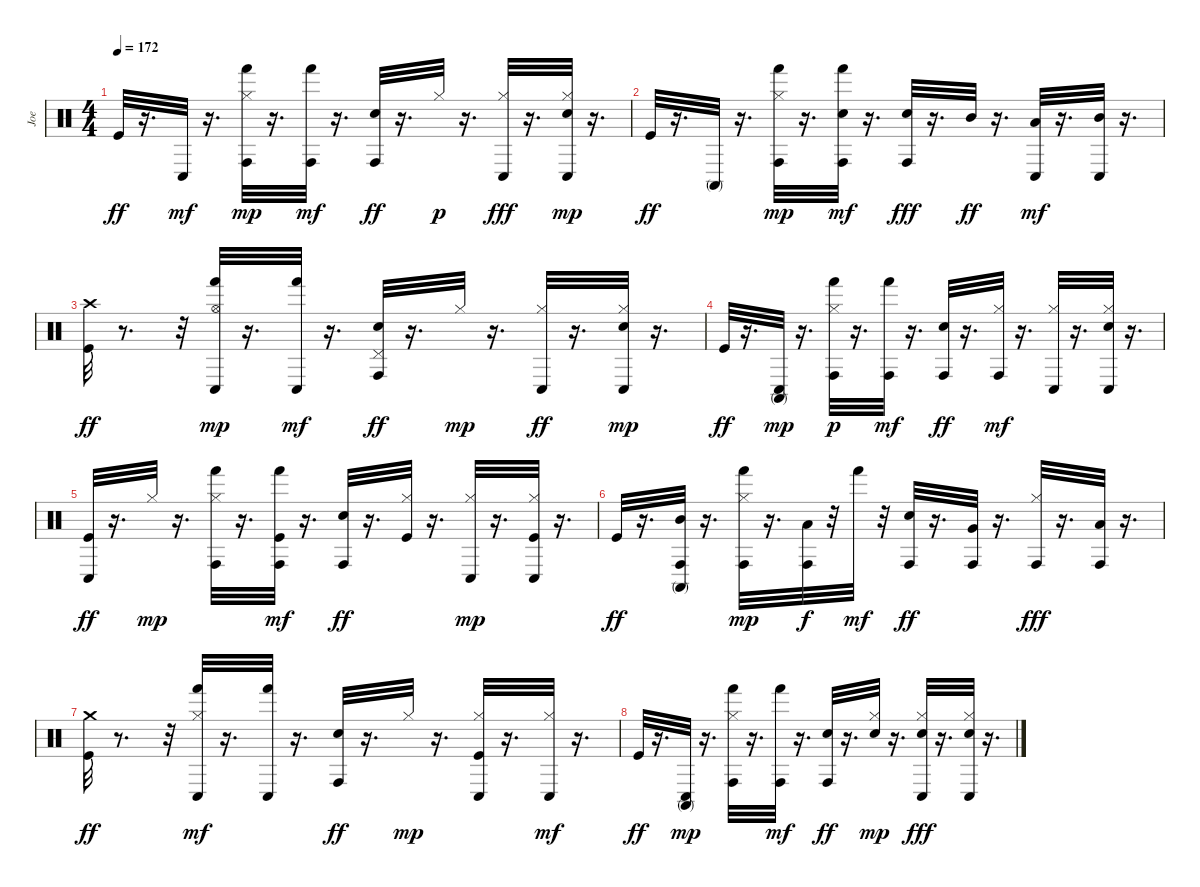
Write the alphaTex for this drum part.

\track ("Joe" "Joe") {instrument percussion}
\staff {score}
\articulation defaults
\ts (4 4)
\tempo 172
\clef neutral
\ks c "Kick (hit)".32{dy ff}
r.16{d} "Conga low (hit)".32{dy mf} r.16{d} ("Hi-Hat (closed)" "Conga high (hit)" "Hand (hit)").32{dy mp} r.16{d} ("Hand (hit)" "Conga high (hit)").32{dy mf} r.16{d} ("Snare (hit) 2" "Conga high (hit)").32{dy ff} r.16{d} "Hi-Hat (closed)".32{dy p} r.16{d} ("Conga low (hit)" "Hi-Hat (closed)").32{dy fff} r.16{d} ("Snare (hit) 2" "Hi-Hat (closed)" "Conga low (hit)").32{dy mp} r.16{d} |
"Kick (hit)".32{dy ff} r.16{d} "Conga high (mute)".32 r.16{d} ("Conga high (hit)" "Hi-Hat (closed)" "Hand (hit)").32{dy mp} r.16{d} ("Conga high (hit)" "Hand (hit)" "Snare (hit) 2").32{dy mf} r.16{d} ("Snare (hit) 2" "Conga high (hit)").32{dy fff} r.16{d} "Mid Tom (hit)".32{dy ff} r.16{d} ("Low Floor Tom (hit)" "Conga low (hit)").32{dy mf} r.16{d} ("Mid Tom (hit)" "Conga low (hit)").32 r.16{d} |
("Crash high (hit)" "Kick (hit)").32{dy ff} r.8{d} r.32 ("Conga low (hit)" "Hi-Hat (open)" "Hand (hit)").32{dy mp} r.16{d} ("Conga low (hit)" "Hand (hit)").32{dy mf} r.16{d} ("Pedal Hi-Hat (hit)" "Conga high (hit)" "Snare (hit) 2").32{dy ff} r.16{d} "Hi-Hat (closed)".32{dy mp} r.16{d} ("Hi-Hat (closed)" "Conga low (hit)").32{dy ff} r.16{d} ("Snare (hit) 2" "Conga low (hit)" "Hi-Hat (closed)").32{dy mp} r.16{d} |
"Kick (hit)".32{dy ff} r.16{d} ("Conga high (mute)" "Conga low (hit)").32{dy mp} r.16{d} ("Hi-Hat (closed)" "Hand (hit)" "Conga high (hit)").32{dy p} r.16{d} ("Hand (hit)" "Conga high (hit)").32{dy mf} r.16{d} ("Snare (hit) 2" "Conga high (hit)").32{dy ff} r.16{d} ("Hi-Hat (closed)" "Conga high (hit)").32{dy mf} r.16{d} ("Hi-Hat (closed)" "Conga low (hit)").32 r.16{d} ("Snare (hit) 2" "Hi-Hat (closed)" "Conga low (hit)").32 r.16{d} |
("Conga low (hit)" "Kick (hit)").32{dy ff} r.16{d} "Hi-Hat (closed)".32{dy mp} r.16{d} ("Hi-Hat (closed)" "Hand (hit)" "Conga high (hit)").32 r.16{d} ("Kick (hit)" "Hand (hit)" "Conga high (hit)").32{dy mf} r.16{d} ("Snare (hit) 2" "Conga high (hit)").32{dy ff} r.16{d} ("Hi-Hat (closed)" "Kick (hit)").32 r.16{d} ("Hi-Hat (closed)" "Conga low (hit)").32{dy mp} r.16{d} ("Conga low (hit)" "Hi-Hat (closed)" "Kick (hit)").32 r.16{d} |
"Kick (hit)".32{dy ff} r.16{d} ("Mid Tom (hit)" "Conga high (hit)" "Conga high (mute)").32 r.16{d} ("Hi-Hat (closed)" "Hand (hit)" "Conga high (hit)").32{dy mp} r.16{d} ("Low Tom (hit)" "Conga high (hit)").32{dy f} r.32 "Hand (hit)".32{dy mf} r.32 ("Snare (hit) 2" "Conga high (hit)").32{dy ff} r.16{d} ("Very Low Tom (hit)" "Conga high (hit)").32 r.16{d} ("Hi-Hat (closed)" "Conga high (hit)").32{dy fff} r.16{d} ("Low Floor Tom (hit)" "Conga high (hit)").32 r.16{d} |
("Crash medium (hit)" "Kick (hit)").32{dy ff} r.8{d} r.32 ("Hi-Hat (closed)" "Hand (hit)" "Conga low (hit)").32{dy mf} r.16{d} ("Hand (hit)" "Conga low (hit)").32 r.16{d} ("Snare (hit) 2" "Conga high (hit)").32{dy ff} r.16{d} "Hi-Hat (closed)".32{dy mp} r.16{d} ("Kick (hit)" "Hi-Hat (closed)" "Conga low (hit)").32 r.16{d} ("Hi-Hat (closed)" "Conga low (hit)").32{dy mf} r.16{d} |
"Kick (hit)".32{dy ff} r.16{d} ("Conga high (mute)" "Conga low (hit)").32{dy mp} r.16{d} ("Hi-Hat (closed)" "Conga high (hit)" "Hand (hit)").32 r.16{d} ("Conga high (hit)" "Hand (hit)").32{dy mf} r.16{d} ("Conga high (hit)" "Snare (hit) 2").32{dy ff} r.16{d} ("Hi-Hat (closed)" "Snare (hit) 2").32{dy mp} r.16{d} ("Conga low (hit)" "Snare (hit) 2" "Hi-Hat (closed)").32{dy fff} r.16{d} ("Hi-Hat (closed)" "Conga low (hit)" "Snare (hit) 2").32 r.16{d}
